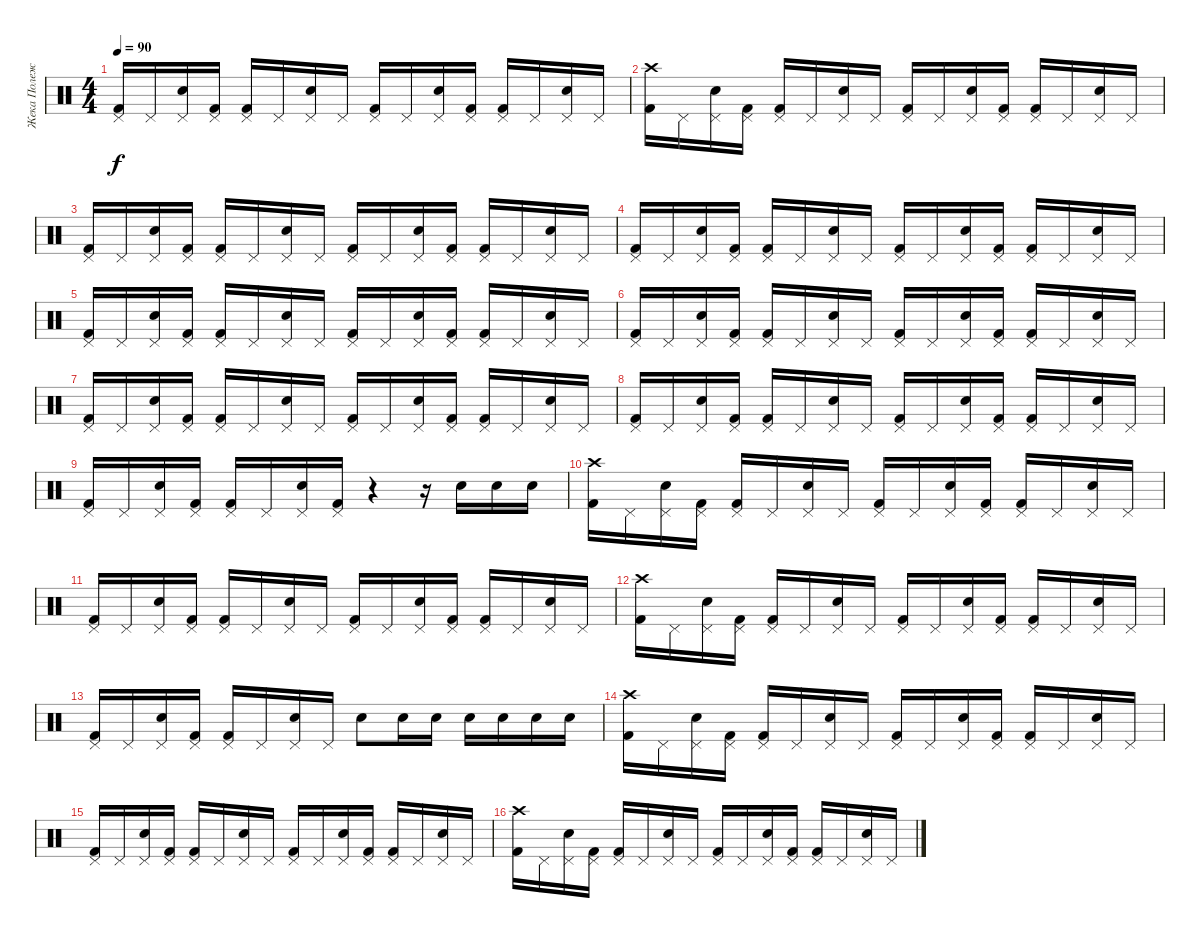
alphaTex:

\track ("Жека Полежаев" "Жека Полеж") {instrument percussion}
\staff {score}
\articulation defaults
\ts (4 4)
\tempo 90
\clef neutral
\ks c
("Pedal Hi-Hat (hit)" "Kick (hit) 2").16{dy f} "Pedal Hi-Hat (hit)".16 ("Pedal Hi-Hat (hit)" "Snare (hit) 2").16 ("Pedal Hi-Hat (hit)" "Kick (hit) 2").16 ("Pedal Hi-Hat (hit)" "Kick (hit) 2").16 "Pedal Hi-Hat (hit)".16 ("Pedal Hi-Hat (hit)" "Snare (hit) 2").16 "Pedal Hi-Hat (hit)".16 ("Pedal Hi-Hat (hit)" "Kick (hit) 2").16 "Pedal Hi-Hat (hit)".16 ("Pedal Hi-Hat (hit)" "Snare (hit) 2").16 ("Pedal Hi-Hat (hit)" "Kick (hit) 2").16 ("Pedal Hi-Hat (hit)" "Kick (hit) 2").16 "Pedal Hi-Hat (hit)".16 ("Pedal Hi-Hat (hit)" "Snare (hit) 2").16 "Pedal Hi-Hat (hit)".16 |
("Crash high (hit)" "Kick (hit) 2").16 "Pedal Hi-Hat (hit)".16 ("Pedal Hi-Hat (hit)" "Snare (hit) 2").16 ("Pedal Hi-Hat (hit)" "Kick (hit) 2").16 ("Pedal Hi-Hat (hit)" "Kick (hit) 2").16 "Pedal Hi-Hat (hit)".16 ("Pedal Hi-Hat (hit)" "Snare (hit) 2").16 "Pedal Hi-Hat (hit)".16 ("Pedal Hi-Hat (hit)" "Kick (hit) 2").16 "Pedal Hi-Hat (hit)".16 ("Pedal Hi-Hat (hit)" "Snare (hit) 2").16 ("Pedal Hi-Hat (hit)" "Kick (hit) 2").16 ("Pedal Hi-Hat (hit)" "Kick (hit) 2").16 "Pedal Hi-Hat (hit)".16 ("Pedal Hi-Hat (hit)" "Snare (hit) 2").16 "Pedal Hi-Hat (hit)".16 |
("Pedal Hi-Hat (hit)" "Kick (hit) 2").16 "Pedal Hi-Hat (hit)".16 ("Pedal Hi-Hat (hit)" "Snare (hit) 2").16 ("Pedal Hi-Hat (hit)" "Kick (hit) 2").16 ("Pedal Hi-Hat (hit)" "Kick (hit) 2").16 "Pedal Hi-Hat (hit)".16 ("Pedal Hi-Hat (hit)" "Snare (hit) 2").16 "Pedal Hi-Hat (hit)".16 ("Pedal Hi-Hat (hit)" "Kick (hit) 2").16 "Pedal Hi-Hat (hit)".16 ("Pedal Hi-Hat (hit)" "Snare (hit) 2").16 ("Pedal Hi-Hat (hit)" "Kick (hit) 2").16 ("Pedal Hi-Hat (hit)" "Kick (hit) 2").16 "Pedal Hi-Hat (hit)".16 ("Pedal Hi-Hat (hit)" "Snare (hit) 2").16 "Pedal Hi-Hat (hit)".16 |
("Pedal Hi-Hat (hit)" "Kick (hit) 2").16 "Pedal Hi-Hat (hit)".16 ("Pedal Hi-Hat (hit)" "Snare (hit) 2").16 ("Pedal Hi-Hat (hit)" "Kick (hit) 2").16 ("Pedal Hi-Hat (hit)" "Kick (hit) 2").16 "Pedal Hi-Hat (hit)".16 ("Pedal Hi-Hat (hit)" "Snare (hit) 2").16 "Pedal Hi-Hat (hit)".16 ("Pedal Hi-Hat (hit)" "Kick (hit) 2").16 "Pedal Hi-Hat (hit)".16 ("Pedal Hi-Hat (hit)" "Snare (hit) 2").16 ("Pedal Hi-Hat (hit)" "Kick (hit) 2").16 ("Pedal Hi-Hat (hit)" "Kick (hit) 2").16 "Pedal Hi-Hat (hit)".16 ("Pedal Hi-Hat (hit)" "Snare (hit) 2").16 "Pedal Hi-Hat (hit)".16 |
("Pedal Hi-Hat (hit)" "Kick (hit) 2").16 "Pedal Hi-Hat (hit)".16 ("Pedal Hi-Hat (hit)" "Snare (hit) 2").16 ("Pedal Hi-Hat (hit)" "Kick (hit) 2").16 ("Pedal Hi-Hat (hit)" "Kick (hit) 2").16 "Pedal Hi-Hat (hit)".16 ("Pedal Hi-Hat (hit)" "Snare (hit) 2").16 "Pedal Hi-Hat (hit)".16 ("Pedal Hi-Hat (hit)" "Kick (hit) 2").16 "Pedal Hi-Hat (hit)".16 ("Pedal Hi-Hat (hit)" "Snare (hit) 2").16 ("Pedal Hi-Hat (hit)" "Kick (hit) 2").16 ("Pedal Hi-Hat (hit)" "Kick (hit) 2").16 "Pedal Hi-Hat (hit)".16 ("Pedal Hi-Hat (hit)" "Snare (hit) 2").16 "Pedal Hi-Hat (hit)".16 |
("Pedal Hi-Hat (hit)" "Kick (hit) 2").16 "Pedal Hi-Hat (hit)".16 ("Pedal Hi-Hat (hit)" "Snare (hit) 2").16 ("Pedal Hi-Hat (hit)" "Kick (hit) 2").16 ("Pedal Hi-Hat (hit)" "Kick (hit) 2").16 "Pedal Hi-Hat (hit)".16 ("Pedal Hi-Hat (hit)" "Snare (hit) 2").16 "Pedal Hi-Hat (hit)".16 ("Pedal Hi-Hat (hit)" "Kick (hit) 2").16 "Pedal Hi-Hat (hit)".16 ("Pedal Hi-Hat (hit)" "Snare (hit) 2").16 ("Pedal Hi-Hat (hit)" "Kick (hit) 2").16 ("Pedal Hi-Hat (hit)" "Kick (hit) 2").16 "Pedal Hi-Hat (hit)".16 ("Pedal Hi-Hat (hit)" "Snare (hit) 2").16 "Pedal Hi-Hat (hit)".16 |
("Pedal Hi-Hat (hit)" "Kick (hit) 2").16 "Pedal Hi-Hat (hit)".16 ("Pedal Hi-Hat (hit)" "Snare (hit) 2").16 ("Pedal Hi-Hat (hit)" "Kick (hit) 2").16 ("Pedal Hi-Hat (hit)" "Kick (hit) 2").16 "Pedal Hi-Hat (hit)".16 ("Pedal Hi-Hat (hit)" "Snare (hit) 2").16 "Pedal Hi-Hat (hit)".16 ("Pedal Hi-Hat (hit)" "Kick (hit) 2").16 "Pedal Hi-Hat (hit)".16 ("Pedal Hi-Hat (hit)" "Snare (hit) 2").16 ("Pedal Hi-Hat (hit)" "Kick (hit) 2").16 ("Pedal Hi-Hat (hit)" "Kick (hit) 2").16 "Pedal Hi-Hat (hit)".16 ("Pedal Hi-Hat (hit)" "Snare (hit) 2").16 "Pedal Hi-Hat (hit)".16 |
("Pedal Hi-Hat (hit)" "Kick (hit) 2").16 "Pedal Hi-Hat (hit)".16 ("Pedal Hi-Hat (hit)" "Snare (hit) 2").16 ("Pedal Hi-Hat (hit)" "Kick (hit) 2").16 ("Pedal Hi-Hat (hit)" "Kick (hit) 2").16 "Pedal Hi-Hat (hit)".16 ("Pedal Hi-Hat (hit)" "Snare (hit) 2").16 "Pedal Hi-Hat (hit)".16 ("Pedal Hi-Hat (hit)" "Kick (hit) 2").16 "Pedal Hi-Hat (hit)".16 ("Pedal Hi-Hat (hit)" "Snare (hit) 2").16 ("Pedal Hi-Hat (hit)" "Kick (hit) 2").16 ("Pedal Hi-Hat (hit)" "Kick (hit) 2").16 "Pedal Hi-Hat (hit)".16 ("Pedal Hi-Hat (hit)" "Snare (hit) 2").16 "Pedal Hi-Hat (hit)".16 |
("Pedal Hi-Hat (hit)" "Kick (hit) 2").16 "Pedal Hi-Hat (hit)".16 ("Pedal Hi-Hat (hit)" "Snare (hit) 2").16 ("Pedal Hi-Hat (hit)" "Kick (hit) 2").16 ("Pedal Hi-Hat (hit)" "Kick (hit) 2").16 "Pedal Hi-Hat (hit)".16 ("Pedal Hi-Hat (hit)" "Snare (hit) 2").16 ("Pedal Hi-Hat (hit)" "Kick (hit) 2").16 r.4 r.16 "Snare (hit) 2".16 "Snare (hit) 2".16 "Snare (hit) 2".16 |
("Crash high (hit)" "Kick (hit) 2").16 "Pedal Hi-Hat (hit)".16 ("Pedal Hi-Hat (hit)" "Snare (hit) 2").16 ("Pedal Hi-Hat (hit)" "Kick (hit) 2").16 ("Pedal Hi-Hat (hit)" "Kick (hit) 2").16 "Pedal Hi-Hat (hit)".16 ("Pedal Hi-Hat (hit)" "Snare (hit) 2").16 "Pedal Hi-Hat (hit)".16 ("Pedal Hi-Hat (hit)" "Kick (hit) 2").16 "Pedal Hi-Hat (hit)".16 ("Pedal Hi-Hat (hit)" "Snare (hit) 2").16 ("Pedal Hi-Hat (hit)" "Kick (hit) 2").16 ("Pedal Hi-Hat (hit)" "Kick (hit) 2").16 "Pedal Hi-Hat (hit)".16 ("Pedal Hi-Hat (hit)" "Snare (hit) 2").16 "Pedal Hi-Hat (hit)".16 |
("Pedal Hi-Hat (hit)" "Kick (hit) 2").16 "Pedal Hi-Hat (hit)".16 ("Pedal Hi-Hat (hit)" "Snare (hit) 2").16 ("Pedal Hi-Hat (hit)" "Kick (hit) 2").16 ("Pedal Hi-Hat (hit)" "Kick (hit) 2").16 "Pedal Hi-Hat (hit)".16 ("Pedal Hi-Hat (hit)" "Snare (hit) 2").16 "Pedal Hi-Hat (hit)".16 ("Pedal Hi-Hat (hit)" "Kick (hit) 2").16 "Pedal Hi-Hat (hit)".16 ("Pedal Hi-Hat (hit)" "Snare (hit) 2").16 ("Pedal Hi-Hat (hit)" "Kick (hit) 2").16 ("Pedal Hi-Hat (hit)" "Kick (hit) 2").16 "Pedal Hi-Hat (hit)".16 ("Pedal Hi-Hat (hit)" "Snare (hit) 2").16 "Pedal Hi-Hat (hit)".16 |
("Crash high (hit)" "Kick (hit) 2").16 "Pedal Hi-Hat (hit)".16 ("Pedal Hi-Hat (hit)" "Snare (hit) 2").16 ("Pedal Hi-Hat (hit)" "Kick (hit) 2").16 ("Pedal Hi-Hat (hit)" "Kick (hit) 2").16 "Pedal Hi-Hat (hit)".16 ("Pedal Hi-Hat (hit)" "Snare (hit) 2").16 "Pedal Hi-Hat (hit)".16 ("Pedal Hi-Hat (hit)" "Kick (hit) 2").16 "Pedal Hi-Hat (hit)".16 ("Pedal Hi-Hat (hit)" "Snare (hit) 2").16 ("Pedal Hi-Hat (hit)" "Kick (hit) 2").16 ("Pedal Hi-Hat (hit)" "Kick (hit) 2").16 "Pedal Hi-Hat (hit)".16 ("Pedal Hi-Hat (hit)" "Snare (hit) 2").16 "Pedal Hi-Hat (hit)".16 |
("Pedal Hi-Hat (hit)" "Kick (hit) 2").16 "Pedal Hi-Hat (hit)".16 ("Pedal Hi-Hat (hit)" "Snare (hit) 2").16 ("Pedal Hi-Hat (hit)" "Kick (hit) 2").16 ("Pedal Hi-Hat (hit)" "Kick (hit) 2").16 "Pedal Hi-Hat (hit)".16 ("Pedal Hi-Hat (hit)" "Snare (hit) 2").16 "Pedal Hi-Hat (hit)".16 "Snare (hit) 2".8 "Snare (hit) 2".16 "Snare (hit) 2".16 "Snare (hit) 2".16 "Snare (hit) 2".16 "Snare (hit) 2".16 "Snare (hit) 2".16 |
("Crash high (hit)" "Kick (hit) 2").16 "Pedal Hi-Hat (hit)".16 ("Pedal Hi-Hat (hit)" "Snare (hit) 2").16 ("Pedal Hi-Hat (hit)" "Kick (hit) 2").16 ("Pedal Hi-Hat (hit)" "Kick (hit) 2").16 "Pedal Hi-Hat (hit)".16 ("Pedal Hi-Hat (hit)" "Snare (hit) 2").16 "Pedal Hi-Hat (hit)".16 ("Pedal Hi-Hat (hit)" "Kick (hit) 2").16 "Pedal Hi-Hat (hit)".16 ("Pedal Hi-Hat (hit)" "Snare (hit) 2").16 ("Pedal Hi-Hat (hit)" "Kick (hit) 2").16 ("Pedal Hi-Hat (hit)" "Kick (hit) 2").16 "Pedal Hi-Hat (hit)".16 ("Pedal Hi-Hat (hit)" "Snare (hit) 2").16 "Pedal Hi-Hat (hit)".16 |
("Pedal Hi-Hat (hit)" "Kick (hit) 2").16 "Pedal Hi-Hat (hit)".16 ("Pedal Hi-Hat (hit)" "Snare (hit) 2").16 ("Pedal Hi-Hat (hit)" "Kick (hit) 2").16 ("Pedal Hi-Hat (hit)" "Kick (hit) 2").16 "Pedal Hi-Hat (hit)".16 ("Pedal Hi-Hat (hit)" "Snare (hit) 2").16 "Pedal Hi-Hat (hit)".16 ("Pedal Hi-Hat (hit)" "Kick (hit) 2").16 "Pedal Hi-Hat (hit)".16 ("Pedal Hi-Hat (hit)" "Snare (hit) 2").16 ("Pedal Hi-Hat (hit)" "Kick (hit) 2").16 ("Pedal Hi-Hat (hit)" "Kick (hit) 2").16 "Pedal Hi-Hat (hit)".16 ("Pedal Hi-Hat (hit)" "Snare (hit) 2").16 "Pedal Hi-Hat (hit)".16 |
("Crash high (hit)" "Kick (hit) 2").16 "Pedal Hi-Hat (hit)".16 ("Pedal Hi-Hat (hit)" "Snare (hit) 2").16 ("Pedal Hi-Hat (hit)" "Kick (hit) 2").16 ("Pedal Hi-Hat (hit)" "Kick (hit) 2").16 "Pedal Hi-Hat (hit)".16 ("Pedal Hi-Hat (hit)" "Snare (hit) 2").16 "Pedal Hi-Hat (hit)".16 ("Pedal Hi-Hat (hit)" "Kick (hit) 2").16 "Pedal Hi-Hat (hit)".16 ("Pedal Hi-Hat (hit)" "Snare (hit) 2").16 ("Pedal Hi-Hat (hit)" "Kick (hit) 2").16 ("Pedal Hi-Hat (hit)" "Kick (hit) 2").16 "Pedal Hi-Hat (hit)".16 ("Pedal Hi-Hat (hit)" "Snare (hit) 2").16 "Pedal Hi-Hat (hit)".16
